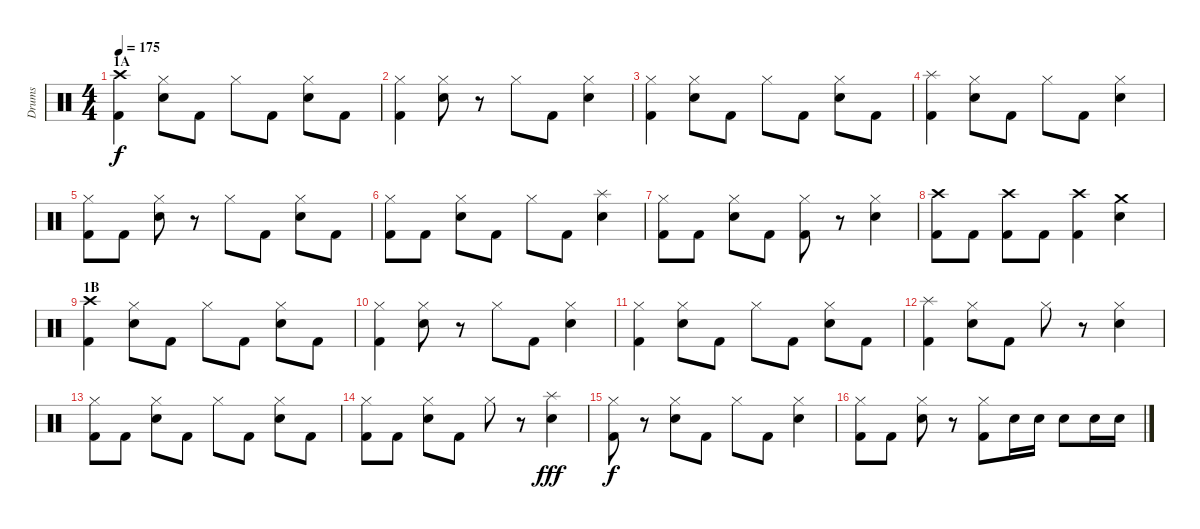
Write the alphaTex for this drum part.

\track ("Drums" "Drums") {instrument percussion}
\staff {score}
\articulation defaults
\ts (4 4)
\section ("" "1A")
\tempo 175
\clef neutral
\ks c
("Crash high (hit)" "Kick (hit) 2").4{dy f volume 16} ("Hi-Hat (closed)" "Electric Snare (hit)").8 "Kick (hit) 2".8 "Hi-Hat (closed)".8 "Kick (hit) 2".8 ("Hi-Hat (closed)" "Electric Snare (hit)").8 "Kick (hit) 2".8 |
("Hi-Hat (closed)" "Kick (hit) 2").4 ("Hi-Hat (closed)" "Electric Snare (hit)").8 r.8 "Hi-Hat (closed)".8 "Kick (hit) 2".8 ("Hi-Hat (closed)" "Electric Snare (hit)").4 |
("Hi-Hat (closed)" "Kick (hit) 2").4 ("Hi-Hat (closed)" "Electric Snare (hit)").8 "Kick (hit) 2".8 "Hi-Hat (closed)".8 "Kick (hit) 2".8 ("Hi-Hat (closed)" "Electric Snare (hit)").8 "Kick (hit) 2".8 |
("Splash (hit)" "Kick (hit) 2").4 ("Hi-Hat (closed)" "Electric Snare (hit)").8 "Kick (hit) 2".8 "Hi-Hat (closed)".8 "Kick (hit) 2".8 ("Hi-Hat (closed)" "Electric Snare (hit)").4 |
("Hi-Hat (closed)" "Kick (hit) 2").8 "Kick (hit) 2".8 ("Hi-Hat (closed)" "Electric Snare (hit)").8 r.8 "Hi-Hat (closed)".8 "Kick (hit) 2".8 ("Hi-Hat (closed)" "Electric Snare (hit)").8 "Kick (hit) 2".8 |
("Hi-Hat (closed)" "Kick (hit) 2").8 "Kick (hit) 2".8 ("Hi-Hat (closed)" "Electric Snare (hit)").8 "Kick (hit) 2".8 "Hi-Hat (closed)".8 "Kick (hit) 2".8 ("Splash (hit)" "Electric Snare (hit)").4 |
("Hi-Hat (closed)" "Kick (hit) 2").8 "Kick (hit) 2".8 ("Hi-Hat (closed)" "Electric Snare (hit)").8 "Kick (hit) 2".8 ("Hi-Hat (closed)" "Kick (hit) 2").8 r.8 ("Hi-Hat (closed)" "Electric Snare (hit)").4 |
("Crash high (hit)" "Kick (hit) 2").8 "Kick (hit) 2".8 ("Crash high (hit)" "Kick (hit) 2").8 "Kick (hit) 2".8 ("Crash high (hit)" "Kick (hit) 2").4 ("Crash medium (hit)" "Electric Snare (hit)").4 |
\section ("" "1B")
("Crash high (hit)" "Kick (hit) 2").4 ("Hi-Hat (closed)" "Electric Snare (hit)").8 "Kick (hit) 2".8 "Hi-Hat (closed)".8 "Kick (hit) 2".8 ("Hi-Hat (closed)" "Electric Snare (hit)").8 "Kick (hit) 2".8 |
("Hi-Hat (closed)" "Kick (hit) 2").4 ("Hi-Hat (closed)" "Electric Snare (hit)").8 r.8 "Hi-Hat (closed)".8 "Kick (hit) 2".8 ("Hi-Hat (closed)" "Electric Snare (hit)").4 |
("Hi-Hat (closed)" "Kick (hit) 2").4 ("Hi-Hat (closed)" "Electric Snare (hit)").8 "Kick (hit) 2".8 "Hi-Hat (closed)".8 "Kick (hit) 2".8 ("Hi-Hat (closed)" "Electric Snare (hit)").8 "Kick (hit) 2".8 |
("Splash (hit)" "Kick (hit) 2").4 ("Hi-Hat (closed)" "Electric Snare (hit)").8 "Kick (hit) 2".8 "Hi-Hat (closed)".8 r.8 ("Hi-Hat (closed)" "Electric Snare (hit)").4 |
("Hi-Hat (closed)" "Kick (hit) 2").8 "Kick (hit) 2".8 ("Hi-Hat (closed)" "Electric Snare (hit)").8 "Kick (hit) 2".8 "Hi-Hat (closed)".8 "Kick (hit) 2".8 ("Hi-Hat (closed)" "Electric Snare (hit)").8 "Kick (hit) 2".8 |
("Hi-Hat (closed)" "Kick (hit) 2").8 "Kick (hit) 2".8 ("Hi-Hat (closed)" "Electric Snare (hit)").8 "Kick (hit) 2".8 "Hi-Hat (closed)".8 r.8 ("Splash (hit)" "Electric Snare (hit)").4{dy fff} |
("Hi-Hat (closed)" "Kick (hit) 2").8{dy f} r.8 ("Hi-Hat (closed)" "Electric Snare (hit)").8 "Kick (hit) 2".8 "Hi-Hat (closed)".8 "Kick (hit) 2".8 ("Hi-Hat (closed)" "Electric Snare (hit)").4 |
("Hi-Hat (closed)" "Kick (hit) 2").8 "Kick (hit) 2".8 ("Hi-Hat (closed)" "Electric Snare (hit)").8 r.8 ("Hi-Hat (closed)" "Kick (hit) 2").8 "Electric Snare (hit)".16 "Electric Snare (hit)".16 "Electric Snare (hit)".8 "Electric Snare (hit)".16 "Electric Snare (hit)".16
